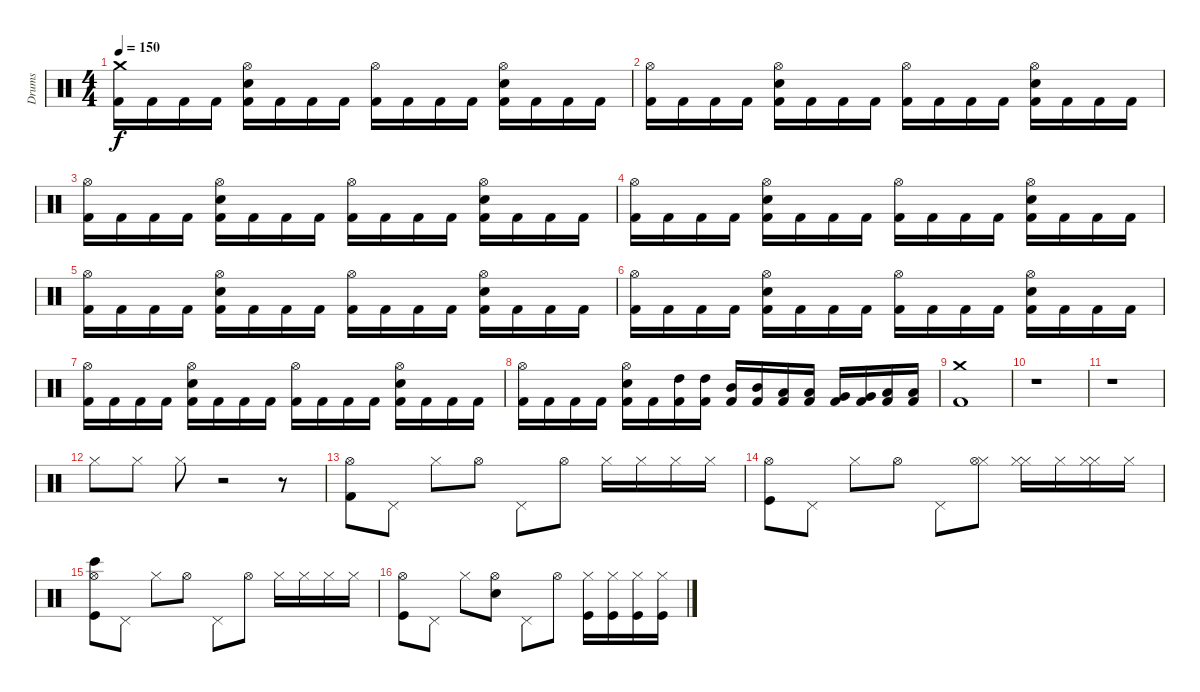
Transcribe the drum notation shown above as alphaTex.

\track ("Drums" "Drums") {instrument percussion}
\staff {score}
\articulation defaults
\ts (4 4)
\tempo 150
\clef neutral
\ks c
("Kick (hit) 2" "Crash medium (hit)").16{dy f} "Kick (hit) 2".16 "Kick (hit) 2".16 "Kick (hit) 2".16 ("Kick (hit) 2" "Electric Snare (hit)" "Hi-Hat (open)").16 "Kick (hit) 2".16 "Kick (hit) 2".16 "Kick (hit) 2".16 ("Kick (hit) 2" "Hi-Hat (open)").16 "Kick (hit) 2".16 "Kick (hit) 2".16 "Kick (hit) 2".16 ("Kick (hit) 2" "Electric Snare (hit)" "Hi-Hat (open)").16 "Kick (hit) 2".16 "Kick (hit) 2".16 "Kick (hit) 2".16 |
("Kick (hit) 2" "Hi-Hat (open)").16 "Kick (hit) 2".16 "Kick (hit) 2".16 "Kick (hit) 2".16 ("Kick (hit) 2" "Electric Snare (hit)" "Hi-Hat (open)").16 "Kick (hit) 2".16 "Kick (hit) 2".16 "Kick (hit) 2".16 ("Kick (hit) 2" "Hi-Hat (open)").16 "Kick (hit) 2".16 "Kick (hit) 2".16 "Kick (hit) 2".16 ("Kick (hit) 2" "Electric Snare (hit)" "Hi-Hat (open)").16 "Kick (hit) 2".16 "Kick (hit) 2".16 "Kick (hit) 2".16 |
("Kick (hit) 2" "Hi-Hat (open)").16 "Kick (hit) 2".16 "Kick (hit) 2".16 "Kick (hit) 2".16 ("Kick (hit) 2" "Electric Snare (hit)" "Hi-Hat (open)").16 "Kick (hit) 2".16 "Kick (hit) 2".16 "Kick (hit) 2".16 ("Kick (hit) 2" "Hi-Hat (open)").16 "Kick (hit) 2".16 "Kick (hit) 2".16 "Kick (hit) 2".16 ("Kick (hit) 2" "Electric Snare (hit)" "Hi-Hat (open)").16 "Kick (hit) 2".16 "Kick (hit) 2".16 "Kick (hit) 2".16 |
("Kick (hit) 2" "Hi-Hat (open)").16 "Kick (hit) 2".16 "Kick (hit) 2".16 "Kick (hit) 2".16 ("Kick (hit) 2" "Electric Snare (hit)" "Hi-Hat (open)").16 "Kick (hit) 2".16 "Kick (hit) 2".16 "Kick (hit) 2".16 ("Kick (hit) 2" "Hi-Hat (open)").16 "Kick (hit) 2".16 "Kick (hit) 2".16 "Kick (hit) 2".16 ("Kick (hit) 2" "Electric Snare (hit)" "Hi-Hat (open)").16 "Kick (hit) 2".16 "Kick (hit) 2".16 "Kick (hit) 2".16 |
("Kick (hit) 2" "Hi-Hat (open)").16 "Kick (hit) 2".16 "Kick (hit) 2".16 "Kick (hit) 2".16 ("Kick (hit) 2" "Electric Snare (hit)" "Hi-Hat (open)").16 "Kick (hit) 2".16 "Kick (hit) 2".16 "Kick (hit) 2".16 ("Kick (hit) 2" "Hi-Hat (open)").16 "Kick (hit) 2".16 "Kick (hit) 2".16 "Kick (hit) 2".16 ("Kick (hit) 2" "Electric Snare (hit)" "Hi-Hat (open)").16 "Kick (hit) 2".16 "Kick (hit) 2".16 "Kick (hit) 2".16 |
("Kick (hit) 2" "Hi-Hat (open)").16 "Kick (hit) 2".16 "Kick (hit) 2".16 "Kick (hit) 2".16 ("Kick (hit) 2" "Electric Snare (hit)" "Hi-Hat (open)").16 "Kick (hit) 2".16 "Kick (hit) 2".16 "Kick (hit) 2".16 ("Kick (hit) 2" "Hi-Hat (open)").16 "Kick (hit) 2".16 "Kick (hit) 2".16 "Kick (hit) 2".16 ("Kick (hit) 2" "Electric Snare (hit)" "Hi-Hat (open)").16 "Kick (hit) 2".16 "Kick (hit) 2".16 "Kick (hit) 2".16 |
("Kick (hit) 2" "Hi-Hat (open)").16 "Kick (hit) 2".16 "Kick (hit) 2".16 "Kick (hit) 2".16 ("Kick (hit) 2" "Electric Snare (hit)" "Hi-Hat (open)").16 "Kick (hit) 2".16 "Kick (hit) 2".16 "Kick (hit) 2".16 ("Kick (hit) 2" "Hi-Hat (open)").16 "Kick (hit) 2".16 "Kick (hit) 2".16 "Kick (hit) 2".16 ("Kick (hit) 2" "Electric Snare (hit)" "Hi-Hat (open)").16 "Kick (hit) 2".16 "Kick (hit) 2".16 "Kick (hit) 2".16 |
("Kick (hit) 2" "Hi-Hat (open)").16 "Kick (hit) 2".16 "Kick (hit) 2".16 "Kick (hit) 2".16 ("Kick (hit) 2" "Electric Snare (hit)" "Hi-Hat (open)").16 "Kick (hit) 2".16 ("Kick (hit) 2" "High Tom (hit)").16 ("Kick (hit) 2" "High Tom (hit)").16 ("Kick (hit) 2" "Mid Tom (hit)").16 ("Kick (hit) 2" "Mid Tom (hit)").16 ("Kick (hit) 2" "Low Tom (hit)").16 ("Kick (hit) 2" "Low Tom (hit)").16 ("Kick (hit) 2" "Very Low Tom (hit)").16 ("Kick (hit) 2" "Very Low Tom (hit)").16 ("Kick (hit) 2" "Low Floor Tom (hit)").16 ("Kick (hit) 2" "Low Floor Tom (hit)").16 |
("Kick (hit) 2" "Crash medium (hit)").1 |
r.1 |
r.1 |
"Hi-Hat (closed)".8{volume 5} "Hi-Hat (closed)".8 "Hi-Hat (closed)".8 r.2 r.8 |
("Kick (hit) 2" "Hi-Hat (open)").8 "Pedal Hi-Hat (hit)".8 "Hi-Hat (closed)".8 "Hi-Hat (open)".8 "Pedal Hi-Hat (hit)".8 "Hi-Hat (open)".8 "Hi-Hat (closed)".16 "Hi-Hat (closed)".16 "Hi-Hat (closed)".16 "Hi-Hat (closed)".16 |
("Kick (hit)" "Hi-Hat (open)").8{volume 8} "Pedal Hi-Hat (hit)".8 "Hi-Hat (closed)".8 "Hi-Hat (open)".8 "Pedal Hi-Hat (hit)".8 ("Hi-Hat (closed)" "Hi-Hat (open)").8 ("Hi-Hat (closed)" "Hi-Hat (closed)").16 "Hi-Hat (closed)".16 ("Hi-Hat (closed)" "Hi-Hat (closed)").16 "Hi-Hat (closed)".16 |
("Kick (hit)" "Bongo High (hit)" "Hi-Hat (open)").8 "Pedal Hi-Hat (hit)".8 "Hi-Hat (closed)".8 "Hi-Hat (open)".8 "Pedal Hi-Hat (hit)".8 "Hi-Hat (open)".8 "Hi-Hat (closed)".16 "Hi-Hat (closed)".16 "Hi-Hat (closed)".16 "Hi-Hat (closed)".16 |
("Kick (hit)" "Hi-Hat (open)").8 "Pedal Hi-Hat (hit)".8 "Hi-Hat (closed)".8 ("Electric Snare (hit)" "Hi-Hat (open)").8 "Pedal Hi-Hat (hit)".8 "Hi-Hat (open)".8 ("Kick (hit)" "Hi-Hat (closed)").16 ("Kick (hit)" "Hi-Hat (closed)").16 ("Kick (hit)" "Hi-Hat (closed)").16 ("Kick (hit)" "Hi-Hat (closed)").16
